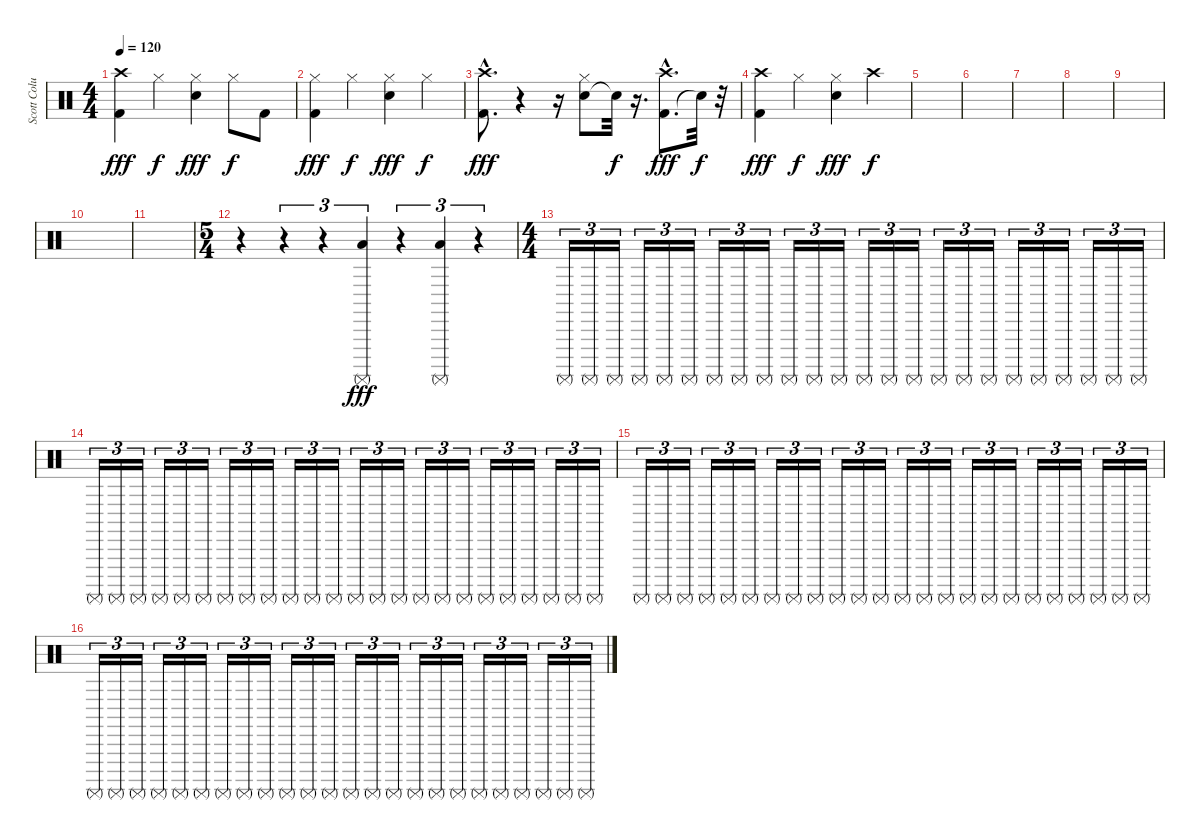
\track ("Scott Columbus" "Scott Colu") {instrument percussion}
\staff {score}
\articulation defaults
\ts (4 4)
\tempo 120
\clef neutral
\ks c
("Kick (hit) 2" "Crash high (hit)").4{dy fff} "Hi-Hat (closed)".4{dy f} ("Electric Snare (hit)" "Hi-Hat (closed)").4{dy fff} "Hi-Hat (closed)".8{dy f} "Kick (hit) 2".8 |
("Kick (hit) 2" "Hi-Hat (closed)").4{dy fff} "Hi-Hat (closed)".4{dy f} ("Electric Snare (hit)" "Hi-Hat (closed)").4{dy fff} "Hi-Hat (closed)".4{dy f} |
("Kick (hit) 2"{hac} "Crash high (hit)"{hac}).8{d dy fff} r.4 r.16 ("Electric Snare (hit)" "Hi-Hat (closed)").8 "Snare (hit)"{t}.32{dy f} r.16{d} ("Kick (hit) 2"{hac} "Crash high (hit)"{hac}).8{d dy fff} "Snare (hit)"{t}.32{dy f} r.32 |
("Kick (hit) 2" "Crash high (hit)").4{dy fff} "Hi-Hat (closed)".4{dy f} ("Electric Snare (hit)" "Hi-Hat (closed)").4{dy fff} "Crash high (hit)".4{dy f} |
|
|
|
|
|
|
|
\ts (5 4)
r.4 r.4{tu (3 2)} r.4{tu (3 2)} ("Surdo (mute)" "Low Floor Tom (hit)").4{tu (3 2) dy fff} r.4{tu (3 2)} ("Surdo (mute)" "Low Floor Tom (hit)").4{tu (3 2)} r.4{tu (3 2)} |
\ts (4 4)
"Surdo (mute)".16{tu (3 2)} "Surdo (mute)".16{tu (3 2)} "Surdo (mute)".16{tu (3 2)} "Surdo (mute)".16{tu (3 2)} "Surdo (mute)".16{tu (3 2)} "Surdo (mute)".16{tu (3 2)} "Surdo (mute)".16{tu (3 2)} "Surdo (mute)".16{tu (3 2)} "Surdo (mute)".16{tu (3 2)} "Surdo (mute)".16{tu (3 2)} "Surdo (mute)".16{tu (3 2)} "Surdo (mute)".16{tu (3 2)} "Surdo (mute)".16{tu (3 2)} "Surdo (mute)".16{tu (3 2)} "Surdo (mute)".16{tu (3 2)} "Surdo (mute)".16{tu (3 2)} "Surdo (mute)".16{tu (3 2)} "Surdo (mute)".16{tu (3 2)} "Surdo (mute)".16{tu (3 2)} "Surdo (mute)".16{tu (3 2)} "Surdo (mute)".16{tu (3 2)} "Surdo (mute)".16{tu (3 2)} "Surdo (mute)".16{tu (3 2)} "Surdo (mute)".16{tu (3 2)} |
"Surdo (mute)".16{tu (3 2)} "Surdo (mute)".16{tu (3 2)} "Surdo (mute)".16{tu (3 2)} "Surdo (mute)".16{tu (3 2)} "Surdo (mute)".16{tu (3 2)} "Surdo (mute)".16{tu (3 2)} "Surdo (mute)".16{tu (3 2)} "Surdo (mute)".16{tu (3 2)} "Surdo (mute)".16{tu (3 2)} "Surdo (mute)".16{tu (3 2)} "Surdo (mute)".16{tu (3 2)} "Surdo (mute)".16{tu (3 2)} "Surdo (mute)".16{tu (3 2)} "Surdo (mute)".16{tu (3 2)} "Surdo (mute)".16{tu (3 2)} "Surdo (mute)".16{tu (3 2)} "Surdo (mute)".16{tu (3 2)} "Surdo (mute)".16{tu (3 2)} "Surdo (mute)".16{tu (3 2)} "Surdo (mute)".16{tu (3 2)} "Surdo (mute)".16{tu (3 2)} "Surdo (mute)".16{tu (3 2)} "Surdo (mute)".16{tu (3 2)} "Surdo (mute)".16{tu (3 2)} |
"Surdo (mute)".16{tu (3 2)} "Surdo (mute)".16{tu (3 2)} "Surdo (mute)".16{tu (3 2)} "Surdo (mute)".16{tu (3 2)} "Surdo (mute)".16{tu (3 2)} "Surdo (mute)".16{tu (3 2)} "Surdo (mute)".16{tu (3 2)} "Surdo (mute)".16{tu (3 2)} "Surdo (mute)".16{tu (3 2)} "Surdo (mute)".16{tu (3 2)} "Surdo (mute)".16{tu (3 2)} "Surdo (mute)".16{tu (3 2)} "Surdo (mute)".16{tu (3 2)} "Surdo (mute)".16{tu (3 2)} "Surdo (mute)".16{tu (3 2)} "Surdo (mute)".16{tu (3 2)} "Surdo (mute)".16{tu (3 2)} "Surdo (mute)".16{tu (3 2)} "Surdo (mute)".16{tu (3 2)} "Surdo (mute)".16{tu (3 2)} "Surdo (mute)".16{tu (3 2)} "Surdo (mute)".16{tu (3 2)} "Surdo (mute)".16{tu (3 2)} "Surdo (mute)".16{tu (3 2)} |
"Surdo (mute)".16{tu (3 2)} "Surdo (mute)".16{tu (3 2)} "Surdo (mute)".16{tu (3 2)} "Surdo (mute)".16{tu (3 2)} "Surdo (mute)".16{tu (3 2)} "Surdo (mute)".16{tu (3 2)} "Surdo (mute)".16{tu (3 2)} "Surdo (mute)".16{tu (3 2)} "Surdo (mute)".16{tu (3 2)} "Surdo (mute)".16{tu (3 2)} "Surdo (mute)".16{tu (3 2)} "Surdo (mute)".16{tu (3 2)} "Surdo (mute)".16{tu (3 2)} "Surdo (mute)".16{tu (3 2)} "Surdo (mute)".16{tu (3 2)} "Surdo (mute)".16{tu (3 2)} "Surdo (mute)".16{tu (3 2)} "Surdo (mute)".16{tu (3 2)} "Surdo (mute)".16{tu (3 2)} "Surdo (mute)".16{tu (3 2)} "Surdo (mute)".16{tu (3 2)} "Surdo (mute)".16{tu (3 2)} "Surdo (mute)".16{tu (3 2)} "Surdo (mute)".16{tu (3 2)}
